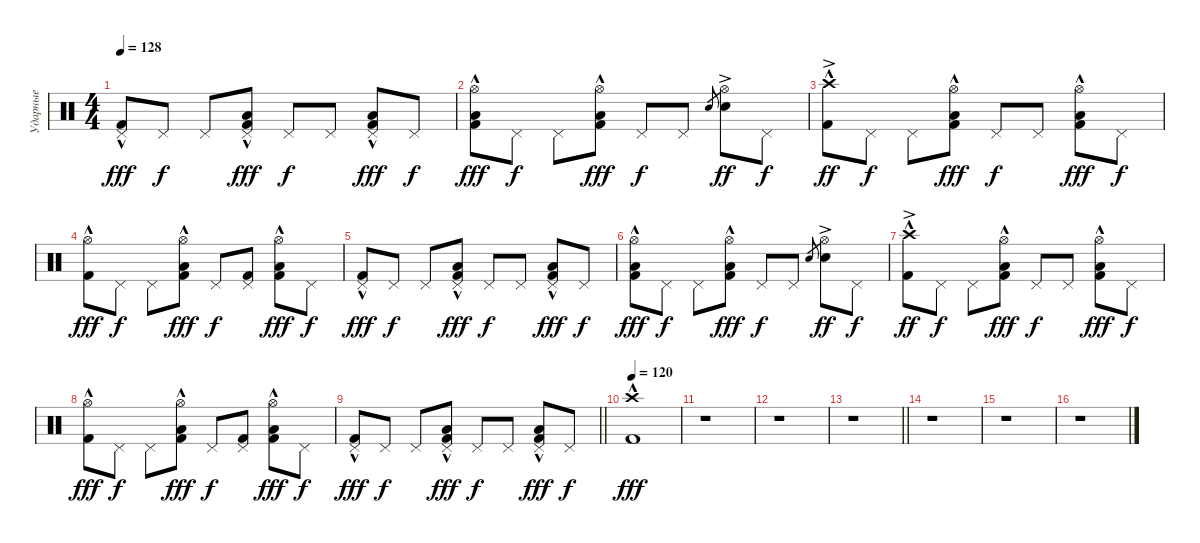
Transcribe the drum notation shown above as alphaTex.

\track ("Ударные" "Ударные") {instrument percussion}
\staff {score}
\articulation defaults
\ts (4 4)
\tempo 128
\clef neutral
\ks c
("Kick (hit) 2"{hac} "Pedal Hi-Hat (hit)").8{dy fff} "Pedal Hi-Hat (hit)".8{dy f} "Pedal Hi-Hat (hit)".8 ("Kick (hit) 2"{hac} "Low Floor Tom (hit)"{hac} "Pedal Hi-Hat (hit)").8{dy fff} "Pedal Hi-Hat (hit)".8{dy f} "Pedal Hi-Hat (hit)".8 ("Kick (hit) 2"{hac} "Low Floor Tom (hit)"{hac} "Pedal Hi-Hat (hit)").8{dy fff} "Pedal Hi-Hat (hit)".8{dy f} |
("Kick (hit) 2"{hac} "Low Floor Tom (hit)"{hac} "Hi-Hat (open)").8{dy fff} "Pedal Hi-Hat (hit)".8{dy f} "Pedal Hi-Hat (hit)".8 ("Kick (hit) 2"{hac} "Low Floor Tom (hit)"{hac} "Hi-Hat (open)").8{dy fff} "Pedal Hi-Hat (hit)".8{dy f} "Pedal Hi-Hat (hit)".8 "Snare (hit) 2".8{gr} ("Snare (hit) 2"{ac} "Hi-Hat (open)").8{dy ff} "Pedal Hi-Hat (hit)".8{dy f} |
("Kick (hit) 2"{hac} "Crash high (hit)"{ac}).8{dy ff} "Pedal Hi-Hat (hit)".8{dy f} "Pedal Hi-Hat (hit)".8 ("Kick (hit) 2"{hac} "Low Floor Tom (hit)"{hac} "Hi-Hat (open)").8{dy fff} "Pedal Hi-Hat (hit)".8{dy f} "Pedal Hi-Hat (hit)".8 ("Kick (hit) 2"{hac} "Low Floor Tom (hit)"{hac} "Hi-Hat (open)").8{dy fff} "Pedal Hi-Hat (hit)".8{dy f} |
("Kick (hit) 2"{hac} "Hi-Hat (open)").8{dy fff} "Pedal Hi-Hat (hit)".8{dy f} "Pedal Hi-Hat (hit)".8 ("Kick (hit) 2"{hac} "Low Floor Tom (hit)"{hac} "Hi-Hat (open)").8{dy fff} "Pedal Hi-Hat (hit)".8{dy f} ("Kick (hit) 2" "Pedal Hi-Hat (hit)").8 ("Kick (hit) 2"{hac} "Low Floor Tom (hit)"{hac} "Hi-Hat (open)").8{dy fff} "Pedal Hi-Hat (hit)".8{dy f} |
("Kick (hit) 2"{hac} "Pedal Hi-Hat (hit)").8{dy fff} "Pedal Hi-Hat (hit)".8{dy f} "Pedal Hi-Hat (hit)".8 ("Kick (hit) 2"{hac} "Low Floor Tom (hit)"{hac} "Pedal Hi-Hat (hit)").8{dy fff} "Pedal Hi-Hat (hit)".8{dy f} "Pedal Hi-Hat (hit)".8 ("Kick (hit) 2"{hac} "Low Floor Tom (hit)"{hac} "Pedal Hi-Hat (hit)").8{dy fff} "Pedal Hi-Hat (hit)".8{dy f} |
("Kick (hit) 2"{hac} "Low Floor Tom (hit)"{hac} "Hi-Hat (open)").8{dy fff} "Pedal Hi-Hat (hit)".8{dy f} "Pedal Hi-Hat (hit)".8 ("Kick (hit) 2"{hac} "Low Floor Tom (hit)"{hac} "Hi-Hat (open)").8{dy fff} "Pedal Hi-Hat (hit)".8{dy f} "Pedal Hi-Hat (hit)".8 "Snare (hit) 2".8{gr} ("Snare (hit) 2"{ac} "Hi-Hat (open)").8{dy ff} "Pedal Hi-Hat (hit)".8{dy f} |
("Kick (hit) 2"{hac} "Crash high (hit)"{ac}).8{dy ff} "Pedal Hi-Hat (hit)".8{dy f} "Pedal Hi-Hat (hit)".8 ("Kick (hit) 2"{hac} "Low Floor Tom (hit)"{hac} "Hi-Hat (open)").8{dy fff} "Pedal Hi-Hat (hit)".8{dy f} "Pedal Hi-Hat (hit)".8 ("Kick (hit) 2"{hac} "Low Floor Tom (hit)"{hac} "Hi-Hat (open)").8{dy fff} "Pedal Hi-Hat (hit)".8{dy f} |
("Kick (hit) 2"{hac} "Hi-Hat (open)").8{dy fff} "Pedal Hi-Hat (hit)".8{dy f} "Pedal Hi-Hat (hit)".8 ("Kick (hit) 2"{hac} "Low Floor Tom (hit)"{hac} "Hi-Hat (open)").8{dy fff} "Pedal Hi-Hat (hit)".8{dy f} ("Kick (hit) 2" "Pedal Hi-Hat (hit)").8 ("Kick (hit) 2"{hac} "Low Floor Tom (hit)"{hac} "Hi-Hat (open)").8{dy fff} "Pedal Hi-Hat (hit)".8{dy f} |
\barLineRight lightlight
("Kick (hit) 2"{hac} "Pedal Hi-Hat (hit)").8{dy fff} "Pedal Hi-Hat (hit)".8{dy f} "Pedal Hi-Hat (hit)".8 ("Kick (hit) 2"{hac} "Low Floor Tom (hit)"{hac} "Pedal Hi-Hat (hit)").8{dy fff} "Pedal Hi-Hat (hit)".8{dy f} "Pedal Hi-Hat (hit)".8 ("Kick (hit) 2"{hac} "Low Floor Tom (hit)"{hac} "Pedal Hi-Hat (hit)").8{dy fff} "Pedal Hi-Hat (hit)".8{dy f} |
\tempo 120
("Kick (hit) 2"{hac} "Crash high (hit)"{hac}).1{dy fff} |
r.1 |
r.1 |
\barLineRight lightlight
r.1 |
r.1 |
r.1 |
r.1
